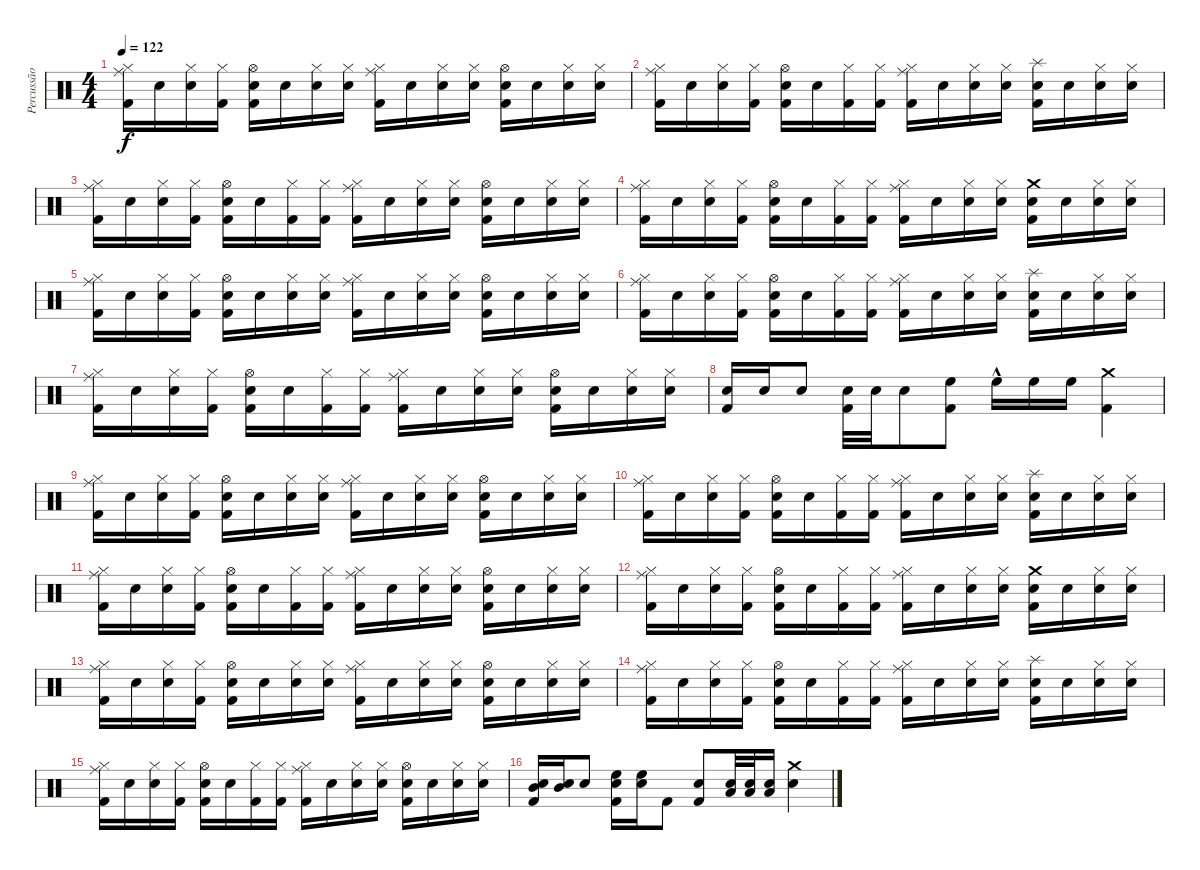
\track ("Percussão" "Percussão") {instrument percussion}
\staff {score}
\articulation defaults
\ts (4 4)
\tempo 122
\clef neutral
\ks c
("Kick (hit) 2" "Hi-Hat (closed)" "Ride (middle)").16{dy f} "Snare (hit)".16 ("Snare (hit)" "Hi-Hat (closed)").16 ("Kick (hit) 2" "Hi-Hat (closed)").16 ("Kick (hit) 2" "Electric Snare (hit)" "Hi-Hat (open)").16 "Snare (hit)".16 ("Snare (hit)" "Hi-Hat (closed)").16 ("Snare (hit)" "Hi-Hat (closed)").16 ("Kick (hit) 2" "Hi-Hat (closed)" "Ride (middle)").16 "Snare (hit)".16 ("Snare (hit)" "Hi-Hat (closed)").16 ("Snare (hit)" "Hi-Hat (closed)").16 ("Kick (hit) 2" "Electric Snare (hit)" "Hi-Hat (open)").16 "Snare (hit)".16 ("Snare (hit)" "Hi-Hat (closed)").16 ("Snare (hit)" "Hi-Hat (closed)").16 |
("Kick (hit) 2" "Hi-Hat (closed)" "Ride (middle)").16 "Snare (hit)".16 ("Snare (hit)" "Hi-Hat (closed)").16 ("Kick (hit) 2" "Hi-Hat (closed)").16 ("Kick (hit) 2" "Electric Snare (hit)" "Hi-Hat (open)").16 "Snare (hit)".16 ("Kick (hit) 2" "Hi-Hat (closed)").16 ("Kick (hit) 2" "Hi-Hat (closed)").16 ("Kick (hit) 2" "Hi-Hat (closed)" "Ride (middle)").16 "Snare (hit)".16 ("Snare (hit)" "Hi-Hat (closed)").16 ("Snare (hit)" "Hi-Hat (closed)").16 ("Kick (hit) 2" "Electric Snare (hit)" "Splash (hit)").16 "Snare (hit)".16 ("Snare (hit)" "Hi-Hat (closed)").16 ("Snare (hit)" "Hi-Hat (closed)").16 |
("Kick (hit) 2" "Hi-Hat (closed)" "Ride (middle)").16 "Snare (hit)".16 ("Snare (hit)" "Hi-Hat (closed)").16 ("Kick (hit) 2" "Hi-Hat (closed)").16 ("Kick (hit) 2" "Electric Snare (hit)" "Hi-Hat (open)").16 "Snare (hit)".16 ("Kick (hit) 2" "Hi-Hat (closed)").16 ("Kick (hit) 2" "Hi-Hat (closed)").16 ("Kick (hit) 2" "Hi-Hat (closed)" "Ride (middle)").16 "Snare (hit)".16 ("Snare (hit)" "Hi-Hat (closed)").16 ("Snare (hit)" "Hi-Hat (closed)").16 ("Kick (hit) 2" "Electric Snare (hit)" "Hi-Hat (open)").16 "Snare (hit)".16 ("Snare (hit)" "Hi-Hat (closed)").16 ("Snare (hit)" "Hi-Hat (closed)").16 |
("Kick (hit) 2" "Hi-Hat (closed)" "Ride (middle)").16 "Snare (hit)".16 ("Snare (hit)" "Hi-Hat (closed)").16 ("Kick (hit) 2" "Hi-Hat (closed)").16 ("Kick (hit) 2" "Electric Snare (hit)" "Hi-Hat (open)").16 "Snare (hit)".16 ("Kick (hit) 2" "Hi-Hat (closed)").16 ("Kick (hit) 2" "Hi-Hat (closed)").16 ("Kick (hit) 2" "Hi-Hat (closed)" "Ride (middle)").16 "Snare (hit)".16 ("Snare (hit)" "Hi-Hat (closed)").16 ("Snare (hit)" "Hi-Hat (closed)").16 ("Kick (hit) 2" "Electric Snare (hit)" "Crash medium (hit)").16 "Snare (hit)".16 ("Snare (hit)" "Hi-Hat (closed)").16 ("Snare (hit)" "Hi-Hat (closed)").16 |
("Kick (hit) 2" "Hi-Hat (closed)" "Ride (middle)").16 "Snare (hit)".16 ("Snare (hit)" "Hi-Hat (closed)").16 ("Kick (hit) 2" "Hi-Hat (closed)").16 ("Kick (hit) 2" "Electric Snare (hit)" "Hi-Hat (open)").16 "Snare (hit)".16 ("Snare (hit)" "Hi-Hat (closed)").16 ("Snare (hit)" "Hi-Hat (closed)").16 ("Kick (hit) 2" "Hi-Hat (closed)" "Ride (middle)").16 "Snare (hit)".16 ("Snare (hit)" "Hi-Hat (closed)").16 ("Snare (hit)" "Hi-Hat (closed)").16 ("Kick (hit) 2" "Electric Snare (hit)" "Hi-Hat (open)").16 "Snare (hit)".16 ("Snare (hit)" "Hi-Hat (closed)").16 ("Snare (hit)" "Hi-Hat (closed)").16 |
("Kick (hit) 2" "Hi-Hat (closed)" "Ride (middle)").16 "Snare (hit)".16 ("Snare (hit)" "Hi-Hat (closed)").16 ("Kick (hit) 2" "Hi-Hat (closed)").16 ("Kick (hit) 2" "Electric Snare (hit)" "Hi-Hat (open)").16 "Snare (hit)".16 ("Kick (hit) 2" "Hi-Hat (closed)").16 ("Kick (hit) 2" "Hi-Hat (closed)").16 ("Kick (hit) 2" "Hi-Hat (closed)" "Ride (middle)").16 "Snare (hit)".16 ("Snare (hit)" "Hi-Hat (closed)").16 ("Snare (hit)" "Hi-Hat (closed)").16 ("Kick (hit) 2" "Electric Snare (hit)" "Splash (hit)").16 "Snare (hit)".16 ("Snare (hit)" "Hi-Hat (closed)").16 ("Snare (hit)" "Hi-Hat (closed)").16 |
("Kick (hit) 2" "Hi-Hat (closed)" "Ride (middle)").16 "Snare (hit)".16 ("Snare (hit)" "Hi-Hat (closed)").16 ("Kick (hit) 2" "Hi-Hat (closed)").16 ("Kick (hit) 2" "Electric Snare (hit)" "Hi-Hat (open)").16 "Snare (hit)".16 ("Kick (hit) 2" "Hi-Hat (closed)").16 ("Kick (hit) 2" "Hi-Hat (closed)").16 ("Kick (hit) 2" "Hi-Hat (closed)" "Ride (middle)").16 "Snare (hit)".16 ("Snare (hit)" "Hi-Hat (closed)").16 ("Snare (hit)" "Hi-Hat (closed)").16 ("Kick (hit) 2" "Electric Snare (hit)" "Hi-Hat (open)").16 "Snare (hit)".16 ("Snare (hit)" "Hi-Hat (closed)").16 ("Snare (hit)" "Hi-Hat (closed)").16 |
("Kick (hit) 2" "Electric Snare (hit)").16 "Electric Snare (hit)".16 "Electric Snare (hit)".8 ("Kick (hit) 2" "Electric Snare (hit)").32 "Electric Snare (hit)".32 "Electric Snare (hit)".8 ("Kick (hit) 2" "High Floor Tom (hit)").8 "High Floor Tom (hit)"{hac}.16 "High Floor Tom (hit)".16 "High Floor Tom (hit)".16 ("Kick (hit) 2" "Crash medium (hit)").4 |
("Kick (hit) 2" "Hi-Hat (closed)" "Ride (middle)").16 "Snare (hit)".16 ("Snare (hit)" "Hi-Hat (closed)").16 ("Kick (hit) 2" "Hi-Hat (closed)").16 ("Kick (hit) 2" "Electric Snare (hit)" "Hi-Hat (open)").16 "Snare (hit)".16 ("Snare (hit)" "Hi-Hat (closed)").16 ("Snare (hit)" "Hi-Hat (closed)").16 ("Kick (hit) 2" "Hi-Hat (closed)" "Ride (middle)").16 "Snare (hit)".16 ("Snare (hit)" "Hi-Hat (closed)").16 ("Snare (hit)" "Hi-Hat (closed)").16 ("Kick (hit) 2" "Electric Snare (hit)" "Hi-Hat (open)").16 "Snare (hit)".16 ("Snare (hit)" "Hi-Hat (closed)").16 ("Snare (hit)" "Hi-Hat (closed)").16 |
("Kick (hit) 2" "Hi-Hat (closed)" "Ride (middle)").16 "Snare (hit)".16 ("Snare (hit)" "Hi-Hat (closed)").16 ("Kick (hit) 2" "Hi-Hat (closed)").16 ("Kick (hit) 2" "Electric Snare (hit)" "Hi-Hat (open)").16 "Snare (hit)".16 ("Kick (hit) 2" "Hi-Hat (closed)").16 ("Kick (hit) 2" "Hi-Hat (closed)").16 ("Kick (hit) 2" "Hi-Hat (closed)" "Ride (middle)").16 "Snare (hit)".16 ("Snare (hit)" "Hi-Hat (closed)").16 ("Snare (hit)" "Hi-Hat (closed)").16 ("Kick (hit) 2" "Electric Snare (hit)" "Splash (hit)").16 "Snare (hit)".16 ("Snare (hit)" "Hi-Hat (closed)").16 ("Snare (hit)" "Hi-Hat (closed)").16 |
("Kick (hit) 2" "Hi-Hat (closed)" "Ride (middle)").16 "Snare (hit)".16 ("Snare (hit)" "Hi-Hat (closed)").16 ("Kick (hit) 2" "Hi-Hat (closed)").16 ("Kick (hit) 2" "Electric Snare (hit)" "Hi-Hat (open)").16 "Snare (hit)".16 ("Kick (hit) 2" "Hi-Hat (closed)").16 ("Kick (hit) 2" "Hi-Hat (closed)").16 ("Kick (hit) 2" "Hi-Hat (closed)" "Ride (middle)").16 "Snare (hit)".16 ("Snare (hit)" "Hi-Hat (closed)").16 ("Snare (hit)" "Hi-Hat (closed)").16 ("Kick (hit) 2" "Electric Snare (hit)" "Hi-Hat (open)").16 "Snare (hit)".16 ("Snare (hit)" "Hi-Hat (closed)").16 ("Snare (hit)" "Hi-Hat (closed)").16 |
("Kick (hit) 2" "Hi-Hat (closed)" "Ride (middle)").16 "Snare (hit)".16 ("Snare (hit)" "Hi-Hat (closed)").16 ("Kick (hit) 2" "Hi-Hat (closed)").16 ("Kick (hit) 2" "Electric Snare (hit)" "Hi-Hat (open)").16 "Snare (hit)".16 ("Kick (hit) 2" "Hi-Hat (closed)").16 ("Kick (hit) 2" "Hi-Hat (closed)").16 ("Kick (hit) 2" "Hi-Hat (closed)" "Ride (middle)").16 "Snare (hit)".16 ("Snare (hit)" "Hi-Hat (closed)").16 ("Snare (hit)" "Hi-Hat (closed)").16 ("Kick (hit) 2" "Electric Snare (hit)" "Crash medium (hit)").16 "Snare (hit)".16 ("Snare (hit)" "Hi-Hat (closed)").16 ("Snare (hit)" "Hi-Hat (closed)").16 |
("Kick (hit) 2" "Hi-Hat (closed)" "Ride (middle)").16 "Snare (hit)".16 ("Snare (hit)" "Hi-Hat (closed)").16 ("Kick (hit) 2" "Hi-Hat (closed)").16 ("Kick (hit) 2" "Electric Snare (hit)" "Hi-Hat (open)").16 "Snare (hit)".16 ("Snare (hit)" "Hi-Hat (closed)").16 ("Snare (hit)" "Hi-Hat (closed)").16 ("Kick (hit) 2" "Hi-Hat (closed)" "Ride (middle)").16 "Snare (hit)".16 ("Snare (hit)" "Hi-Hat (closed)").16 ("Snare (hit)" "Hi-Hat (closed)").16 ("Kick (hit) 2" "Electric Snare (hit)" "Hi-Hat (open)").16 "Snare (hit)".16 ("Snare (hit)" "Hi-Hat (closed)").16 ("Snare (hit)" "Hi-Hat (closed)").16 |
("Kick (hit) 2" "Hi-Hat (closed)" "Ride (middle)").16 "Snare (hit)".16 ("Snare (hit)" "Hi-Hat (closed)").16 ("Kick (hit) 2" "Hi-Hat (closed)").16 ("Kick (hit) 2" "Electric Snare (hit)" "Hi-Hat (open)").16 "Snare (hit)".16 ("Kick (hit) 2" "Hi-Hat (closed)").16 ("Kick (hit) 2" "Hi-Hat (closed)").16 ("Kick (hit) 2" "Hi-Hat (closed)" "Ride (middle)").16 "Snare (hit)".16 ("Snare (hit)" "Hi-Hat (closed)").16 ("Snare (hit)" "Hi-Hat (closed)").16 ("Kick (hit) 2" "Electric Snare (hit)" "Splash (hit)").16 "Snare (hit)".16 ("Snare (hit)" "Hi-Hat (closed)").16 ("Snare (hit)" "Hi-Hat (closed)").16 |
("Kick (hit) 2" "Hi-Hat (closed)" "Ride (middle)").16 "Snare (hit)".16 ("Snare (hit)" "Hi-Hat (closed)").16 ("Kick (hit) 2" "Hi-Hat (closed)").16 ("Kick (hit) 2" "Electric Snare (hit)" "Hi-Hat (open)").16 "Snare (hit)".16 ("Kick (hit) 2" "Hi-Hat (closed)").16 ("Kick (hit) 2" "Hi-Hat (closed)").16 ("Kick (hit) 2" "Hi-Hat (closed)" "Ride (middle)").16 "Snare (hit)".16 ("Snare (hit)" "Hi-Hat (closed)").16 ("Snare (hit)" "Hi-Hat (closed)").16 ("Kick (hit) 2" "Electric Snare (hit)" "Hi-Hat (open)").16 "Snare (hit)".16 ("Snare (hit)" "Hi-Hat (closed)").16 ("Snare (hit)" "Hi-Hat (closed)").16 |
("Electric Snare (hit)" "Kick (hit) 2" "Mid Tom (hit)").16 ("Electric Snare (hit)" "Mid Tom (hit)").16 "Electric Snare (hit)".8 ("Electric Snare (hit)" "Kick (hit) 2" "High Floor Tom (hit)").16 ("Electric Snare (hit)" "High Floor Tom (hit)").16 "Kick (hit) 2".8 ("Electric Snare (hit)" "Kick (hit) 2").8 ("Electric Snare (hit)" "Low Floor Tom (hit)").32 ("Electric Snare (hit)" "Low Floor Tom (hit)").32 ("Electric Snare (hit)" "Low Floor Tom (hit)").16 ("Electric Snare (hit)" "Crash medium (hit)").4
